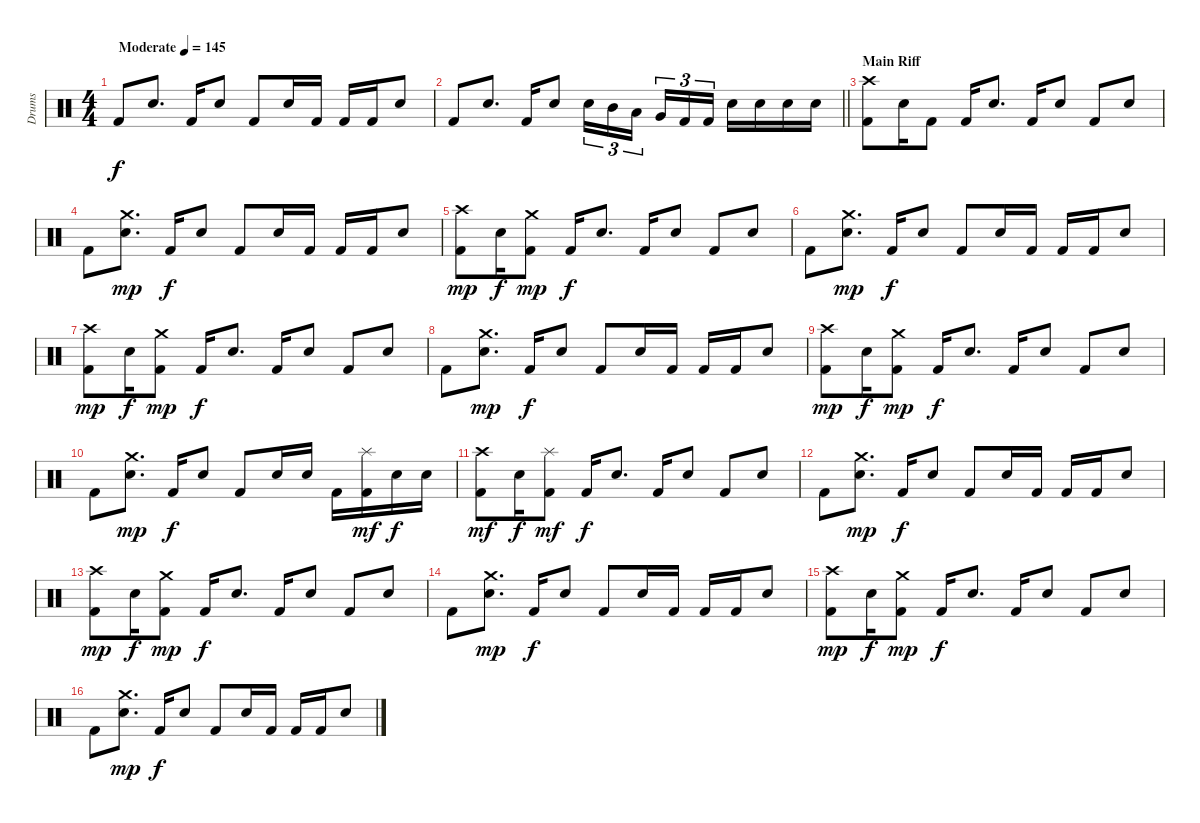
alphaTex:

\track ("Drums" "Drums") {instrument percussion}
\staff {score}
\articulation defaults
\ts (4 4)
\tempo (145 "Moderate")
\clef neutral
\ks c "Kick (hit) 2".8{dy f} "Snare (hit) 2".8{d} "Kick (hit) 2".16 "Snare (hit) 2".8 "Kick (hit) 2".8 "Snare (hit) 2".16 "Kick (hit) 2".16 "Kick (hit) 2".16 "Kick (hit) 2".16 "Snare (hit) 2".8
|
\barLineRight lightlight "Kick (hit) 2".8 "Snare (hit) 2".8{d} "Kick (hit) 2".16 "Snare (hit) 2".8 "Snare (hit) 2".16{tu (3 2)} "Mid Tom (hit)".16{tu (3 2)} "Low Tom (hit)".16{tu (3 2) beam splitsecondary} "Very Low Tom (hit)".16{tu (3 2)} "Kick (hit) 2".16{tu (3 2)} "Kick (hit) 2".16{tu (3 2)} "Snare (hit) 2".16 "Snare (hit) 2".16 "Snare (hit) 2".16 "Snare (hit) 2".16
|
\section ("" "Main Riff")
("Crash high (hit)" "Kick (hit) 2").8 "Snare (hit) 2".16 "Kick (hit) 2".8 "Kick (hit) 2".16 "Snare (hit) 2".8{d} "Kick (hit) 2".16 "Snare (hit) 2".8 "Kick (hit) 2".8 "Snare (hit) 2".8 |
"Kick (hit) 2".8 ("Crash medium (hit)" "Snare (hit) 2").8{d dy mp} "Kick (hit) 2".16{dy f} "Snare (hit) 2".8 "Kick (hit) 2".8 "Snare (hit) 2".16 "Kick (hit) 2".16 "Kick (hit) 2".16 "Kick (hit) 2".16 "Snare (hit) 2".8 |
("Crash high (hit)" "Kick (hit) 2").8{dy mp} "Snare (hit) 2".16{dy f} ("Crash medium (hit)" "Kick (hit) 2").8{dy mp} "Kick (hit) 2".16{dy f} "Snare (hit) 2".8{d} "Kick (hit) 2".16 "Snare (hit) 2".8 "Kick (hit) 2".8 "Snare (hit) 2".8 |
"Kick (hit) 2".8 ("Crash medium (hit)" "Snare (hit) 2").8{d dy mp} "Kick (hit) 2".16{dy f} "Snare (hit) 2".8 "Kick (hit) 2".8 "Snare (hit) 2".16 "Kick (hit) 2".16 "Kick (hit) 2".16 "Kick (hit) 2".16 "Snare (hit) 2".8 |
("Crash high (hit)" "Kick (hit) 2").8{dy mp} "Snare (hit) 2".16{dy f} ("Crash medium (hit)" "Kick (hit) 2").8{dy mp} "Kick (hit) 2".16{dy f} "Snare (hit) 2".8{d} "Kick (hit) 2".16 "Snare (hit) 2".8 "Kick (hit) 2".8 "Snare (hit) 2".8 |
"Kick (hit) 2".8 ("Crash medium (hit)" "Snare (hit) 2").8{d dy mp} "Kick (hit) 2".16{dy f} "Snare (hit) 2".8 "Kick (hit) 2".8 "Snare (hit) 2".16 "Kick (hit) 2".16 "Kick (hit) 2".16 "Kick (hit) 2".16 "Snare (hit) 2".8 |
("Crash high (hit)" "Kick (hit) 2").8{dy mp} "Snare (hit) 2".16{dy f} ("Crash medium (hit)" "Kick (hit) 2").8{dy mp} "Kick (hit) 2".16{dy f} "Snare (hit) 2".8{d} "Kick (hit) 2".16 "Snare (hit) 2".8 "Kick (hit) 2".8 "Snare (hit) 2".8 |
"Kick (hit) 2".8 ("Crash medium (hit)" "Snare (hit) 2").8{d dy mp} "Kick (hit) 2".16{dy f} "Snare (hit) 2".8 "Kick (hit) 2".8 "Snare (hit) 2".16 "Snare (hit) 2".16 "Kick (hit) 2".16 ("Splash (hit)" "Kick (hit) 2").16{dy mf} "Snare (hit) 2".16{dy f} "Snare (hit) 2".16 |
("Crash high (hit)" "Kick (hit) 2").8{dy mf} "Snare (hit) 2".16{dy f} ("Splash (hit)" "Kick (hit) 2").8{dy mf} "Kick (hit) 2".16{dy f} "Snare (hit) 2".8{d} "Kick (hit) 2".16 "Snare (hit) 2".8 "Kick (hit) 2".8 "Snare (hit) 2".8 |
"Kick (hit) 2".8 ("Crash medium (hit)" "Snare (hit) 2").8{d dy mp} "Kick (hit) 2".16{dy f} "Snare (hit) 2".8 "Kick (hit) 2".8 "Snare (hit) 2".16 "Kick (hit) 2".16 "Kick (hit) 2".16 "Kick (hit) 2".16 "Snare (hit) 2".8 |
("Crash high (hit)" "Kick (hit) 2").8{dy mp} "Snare (hit) 2".16{dy f} ("Crash medium (hit)" "Kick (hit) 2").8{dy mp} "Kick (hit) 2".16{dy f} "Snare (hit) 2".8{d} "Kick (hit) 2".16 "Snare (hit) 2".8 "Kick (hit) 2".8 "Snare (hit) 2".8 |
"Kick (hit) 2".8 ("Crash medium (hit)" "Snare (hit) 2").8{d dy mp} "Kick (hit) 2".16{dy f} "Snare (hit) 2".8 "Kick (hit) 2".8 "Snare (hit) 2".16 "Kick (hit) 2".16 "Kick (hit) 2".16 "Kick (hit) 2".16 "Snare (hit) 2".8 |
("Crash high (hit)" "Kick (hit) 2").8{dy mp} "Snare (hit) 2".16{dy f} ("Crash medium (hit)" "Kick (hit) 2").8{dy mp} "Kick (hit) 2".16{dy f} "Snare (hit) 2".8{d} "Kick (hit) 2".16 "Snare (hit) 2".8 "Kick (hit) 2".8 "Snare (hit) 2".8 |
"Kick (hit) 2".8 ("Crash medium (hit)" "Snare (hit) 2").8{d dy mp} "Kick (hit) 2".16{dy f} "Snare (hit) 2".8 "Kick (hit) 2".8 "Snare (hit) 2".16 "Kick (hit) 2".16 "Kick (hit) 2".16 "Kick (hit) 2".16 "Snare (hit) 2".8
